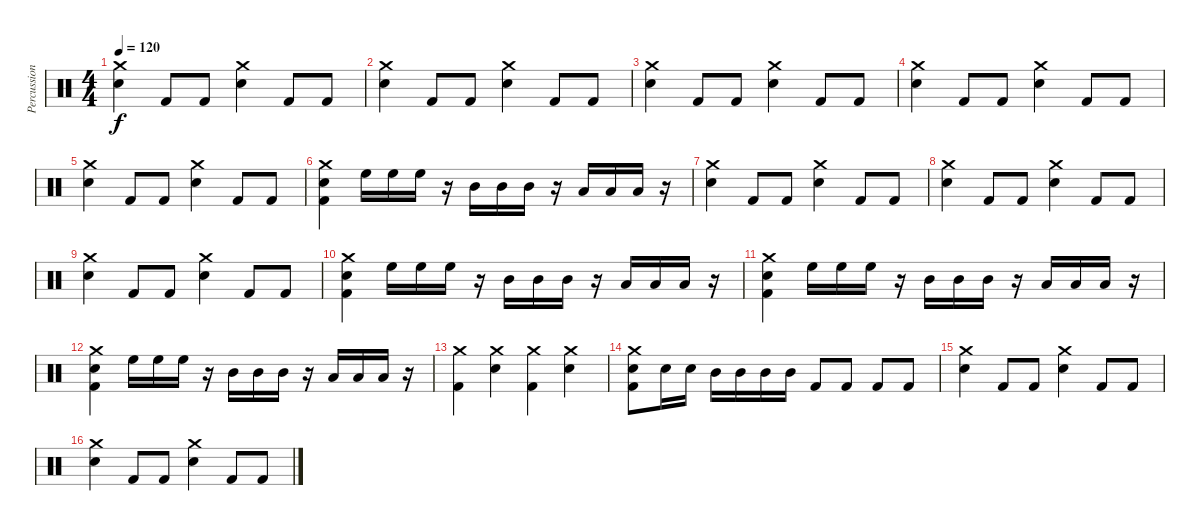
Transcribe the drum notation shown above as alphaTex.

\track ("Percussions" "Percussion") {instrument percussion}
\staff {score}
\articulation defaults
\ts (4 4)
\tempo 120
\clef neutral
\ks c
("Crash medium (hit)" "Snare (hit) 2").4{dy f} "Kick (hit) 2".8 "Kick (hit) 2".8 ("Crash medium (hit)" "Snare (hit) 2").4 "Kick (hit) 2".8 "Kick (hit) 2".8 |
("Crash medium (hit)" "Snare (hit) 2").4 "Kick (hit) 2".8 "Kick (hit) 2".8 ("Crash medium (hit)" "Snare (hit) 2").4 "Kick (hit) 2".8 "Kick (hit) 2".8 |
("Crash medium (hit)" "Snare (hit) 2").4 "Kick (hit) 2".8 "Kick (hit) 2".8 ("Crash medium (hit)" "Snare (hit) 2").4 "Kick (hit) 2".8 "Kick (hit) 2".8 |
("Crash medium (hit)" "Snare (hit) 2").4 "Kick (hit) 2".8 "Kick (hit) 2".8 ("Crash medium (hit)" "Snare (hit) 2").4 "Kick (hit) 2".8 "Kick (hit) 2".8 |
("Crash medium (hit)" "Snare (hit) 2").4 "Kick (hit) 2".8 "Kick (hit) 2".8 ("Crash medium (hit)" "Snare (hit) 2").4 "Kick (hit) 2".8 "Kick (hit) 2".8 |
("Crash medium (hit)" "Snare (hit) 2" "Kick (hit) 2").4 "High Floor Tom (hit)".16 "High Floor Tom (hit)".16 "High Floor Tom (hit)".16 r.16 "Mid Tom (hit)".16 "Mid Tom (hit)".16 "Mid Tom (hit)".16 r.16 "Low Tom (hit)".16 "Low Tom (hit)".16 "Low Tom (hit)".16 r.16 |
("Crash medium (hit)" "Snare (hit) 2").4 "Kick (hit) 2".8 "Kick (hit) 2".8 ("Crash medium (hit)" "Snare (hit) 2").4 "Kick (hit) 2".8 "Kick (hit) 2".8 |
("Crash medium (hit)" "Snare (hit) 2").4 "Kick (hit) 2".8 "Kick (hit) 2".8 ("Crash medium (hit)" "Snare (hit) 2").4 "Kick (hit) 2".8 "Kick (hit) 2".8 |
("Crash medium (hit)" "Snare (hit) 2").4 "Kick (hit) 2".8 "Kick (hit) 2".8 ("Crash medium (hit)" "Snare (hit) 2").4 "Kick (hit) 2".8 "Kick (hit) 2".8 |
("Crash medium (hit)" "Snare (hit) 2" "Kick (hit) 2").4 "High Floor Tom (hit)".16 "High Floor Tom (hit)".16 "High Floor Tom (hit)".16 r.16 "Mid Tom (hit)".16 "Mid Tom (hit)".16 "Mid Tom (hit)".16 r.16 "Low Tom (hit)".16 "Low Tom (hit)".16 "Low Tom (hit)".16 r.16 |
("Crash medium (hit)" "Snare (hit) 2" "Kick (hit) 2").4 "High Floor Tom (hit)".16 "High Floor Tom (hit)".16 "High Floor Tom (hit)".16 r.16 "Mid Tom (hit)".16 "Mid Tom (hit)".16 "Mid Tom (hit)".16 r.16 "Low Tom (hit)".16 "Low Tom (hit)".16 "Low Tom (hit)".16 r.16 |
("Crash medium (hit)" "Snare (hit) 2" "Kick (hit) 2").4 "High Floor Tom (hit)".16 "High Floor Tom (hit)".16 "High Floor Tom (hit)".16 r.16 "Mid Tom (hit)".16 "Mid Tom (hit)".16 "Mid Tom (hit)".16 r.16 "Low Tom (hit)".16 "Low Tom (hit)".16 "Low Tom (hit)".16 r.16 |
("Crash medium (hit)" "Kick (hit) 2").4 ("Crash medium (hit)" "Snare (hit) 2").4 ("Crash medium (hit)" "Kick (hit) 2").4 ("Crash medium (hit)" "Snare (hit) 2").4 |
("Crash medium (hit)" "Snare (hit) 2" "Kick (hit) 2").8 "Snare (hit) 2".16 "Snare (hit) 2".16 "Mid Tom (hit)".16 "Mid Tom (hit)".16 "Mid Tom (hit)".16 "Mid Tom (hit)".16 "Kick (hit) 2".8 "Kick (hit) 2".8 "Kick (hit) 2".8 "Kick (hit) 2".8 |
("Crash medium (hit)" "Snare (hit) 2").4 "Kick (hit) 2".8 "Kick (hit) 2".8 ("Crash medium (hit)" "Snare (hit) 2").4 "Kick (hit) 2".8 "Kick (hit) 2".8 |
("Crash medium (hit)" "Snare (hit) 2").4 "Kick (hit) 2".8 "Kick (hit) 2".8 ("Crash medium (hit)" "Snare (hit) 2").4 "Kick (hit) 2".8 "Kick (hit) 2".8
